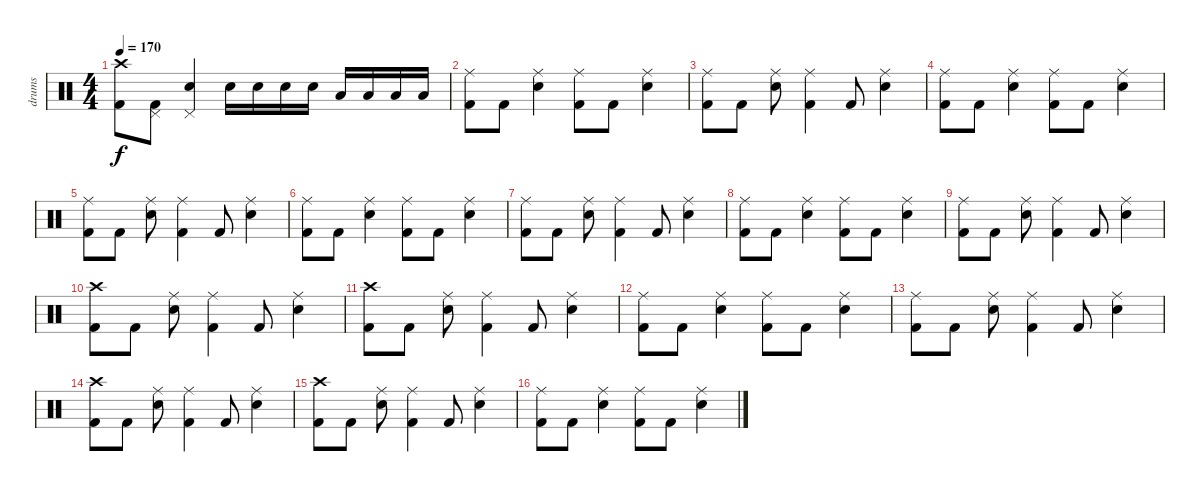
\track ("drums" "drums") {instrument percussion}
\staff {score}
\articulation defaults
\ts (4 4)
\tempo 170
\clef neutral
\ks c
("Crash high (hit)" "Kick (hit) 2").8{dy f} ("Pedal Hi-Hat (hit)" "Kick (hit) 2").8 ("Pedal Hi-Hat (hit)" "Electric Snare (hit)").4 "Electric Snare (hit)".16 "Electric Snare (hit)".16 "Electric Snare (hit)".16 "Electric Snare (hit)".16 "Low Tom (hit)".16 "Low Tom (hit)".16 "Low Tom (hit)".16 "Low Tom (hit)".16 |
("Ride (middle)" "Kick (hit) 2").8 "Kick (hit) 2".8 ("Ride (middle)" "Electric Snare (hit)").4 ("Ride (middle)" "Kick (hit) 2").8 "Kick (hit) 2".8 ("Ride (middle)" "Electric Snare (hit)").4 |
("Ride (middle)" "Kick (hit) 2").8 "Kick (hit) 2".8 ("Ride (middle)" "Electric Snare (hit)").8 ("Ride (middle)" "Kick (hit) 2").4 "Kick (hit) 2".8 ("Ride (middle)" "Electric Snare (hit)").4 |
("Ride (middle)" "Kick (hit) 2").8 "Kick (hit) 2".8 ("Ride (middle)" "Electric Snare (hit)").4 ("Ride (middle)" "Kick (hit) 2").8 "Kick (hit) 2".8 ("Ride (middle)" "Electric Snare (hit)").4 |
("Ride (middle)" "Kick (hit) 2").8 "Kick (hit) 2".8 ("Ride (middle)" "Electric Snare (hit)").8 ("Ride (middle)" "Kick (hit) 2").4 "Kick (hit) 2".8 ("Ride (middle)" "Electric Snare (hit)").4 |
("Ride (middle)" "Kick (hit) 2").8 "Kick (hit) 2".8 ("Ride (middle)" "Electric Snare (hit)").4 ("Ride (middle)" "Kick (hit) 2").8 "Kick (hit) 2".8 ("Ride (middle)" "Electric Snare (hit)").4 |
("Ride (middle)" "Kick (hit) 2").8 "Kick (hit) 2".8 ("Ride (middle)" "Electric Snare (hit)").8 ("Ride (middle)" "Kick (hit) 2").4 "Kick (hit) 2".8 ("Ride (middle)" "Electric Snare (hit)").4 |
("Ride (middle)" "Kick (hit) 2").8 "Kick (hit) 2".8 ("Ride (middle)" "Electric Snare (hit)").4 ("Ride (middle)" "Kick (hit) 2").8 "Kick (hit) 2".8 ("Ride (middle)" "Electric Snare (hit)").4 |
("Ride (middle)" "Kick (hit) 2").8 "Kick (hit) 2".8 ("Ride (middle)" "Electric Snare (hit)").8 ("Ride (middle)" "Kick (hit) 2").4 "Kick (hit) 2".8 ("Ride (middle)" "Electric Snare (hit)").4 |
("Crash high (hit)" "Kick (hit) 2").8 "Kick (hit) 2".8 ("Ride (middle)" "Electric Snare (hit)").8 ("Ride (middle)" "Kick (hit) 2").4 "Kick (hit) 2".8 ("Ride (middle)" "Electric Snare (hit)").4 |
("Crash high (hit)" "Kick (hit) 2").8 "Kick (hit) 2".8 ("Ride (middle)" "Electric Snare (hit)").8 ("Ride (middle)" "Kick (hit) 2").4 "Kick (hit) 2".8 ("Ride (middle)" "Electric Snare (hit)").4 |
("Ride (middle)" "Kick (hit) 2").8 "Kick (hit) 2".8 ("Ride (middle)" "Electric Snare (hit)").4 ("Ride (middle)" "Kick (hit) 2").8 "Kick (hit) 2".8 ("Ride (middle)" "Electric Snare (hit)").4 |
("Ride (middle)" "Kick (hit) 2").8 "Kick (hit) 2".8 ("Ride (middle)" "Electric Snare (hit)").8 ("Ride (middle)" "Kick (hit) 2").4 "Kick (hit) 2".8 ("Ride (middle)" "Electric Snare (hit)").4 |
("Crash high (hit)" "Kick (hit) 2").8 "Kick (hit) 2".8 ("Ride (middle)" "Electric Snare (hit)").8 ("Ride (middle)" "Kick (hit) 2").4 "Kick (hit) 2".8 ("Ride (middle)" "Electric Snare (hit)").4 |
("Crash high (hit)" "Kick (hit) 2").8 "Kick (hit) 2".8 ("Ride (middle)" "Electric Snare (hit)").8 ("Ride (middle)" "Kick (hit) 2").4 "Kick (hit) 2".8 ("Ride (middle)" "Electric Snare (hit)").4 |
("Ride (middle)" "Kick (hit) 2").8 "Kick (hit) 2".8 ("Ride (middle)" "Electric Snare (hit)").4 ("Ride (middle)" "Kick (hit) 2").8 "Kick (hit) 2".8 ("Ride (middle)" "Electric Snare (hit)").4
